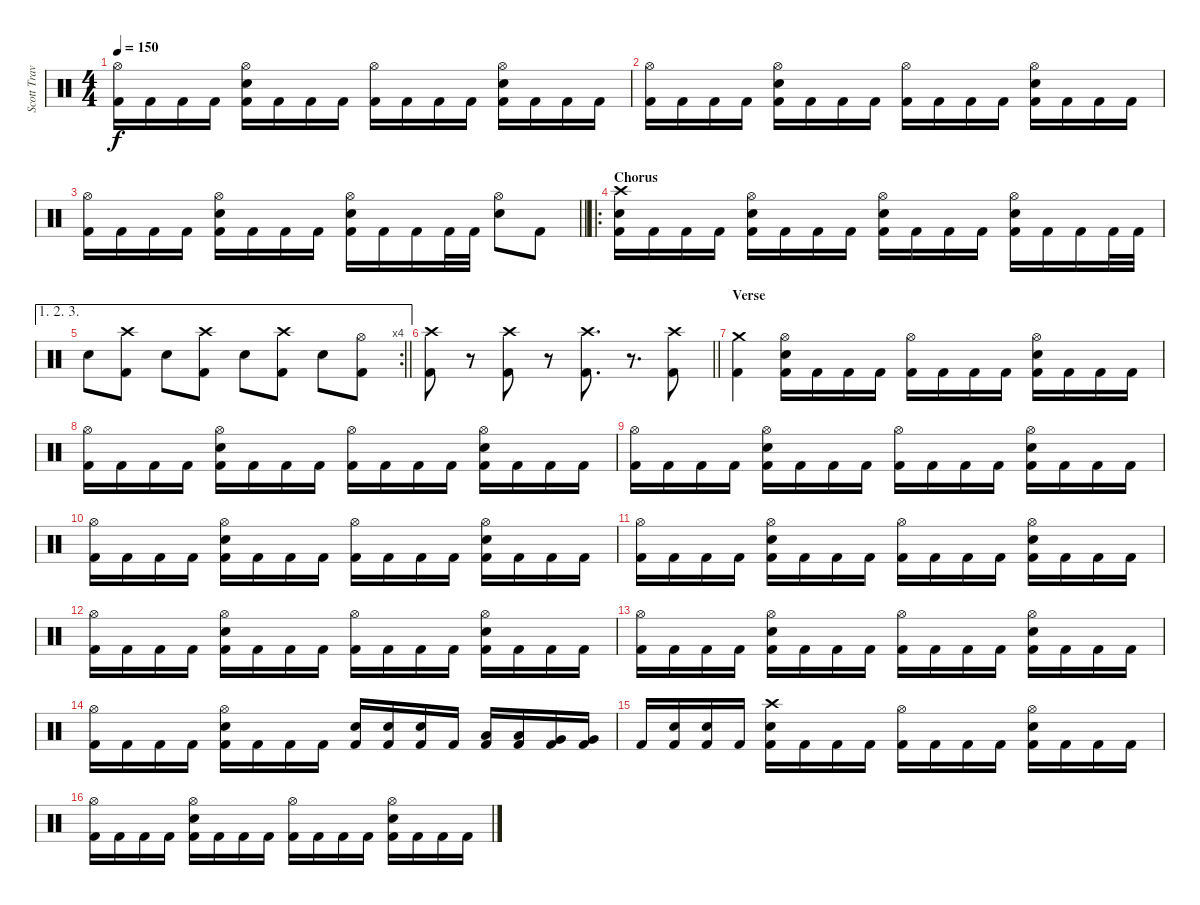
\track ("Scott Travis" "Scott Trav") {instrument percussion}
\staff {score}
\articulation defaults
\ts (4 4)
\tempo 150
\clef neutral
\ks c
("Hi-Hat (open)" "Kick (hit) 2").16{dy f} "Kick (hit) 2".16 "Kick (hit) 2".16 "Kick (hit) 2".16 ("Hi-Hat (open)" "Snare (hit) 2" "Kick (hit) 2").16 "Kick (hit) 2".16 "Kick (hit) 2".16 "Kick (hit) 2".16 ("Hi-Hat (open)" "Kick (hit) 2").16 "Kick (hit) 2".16 "Kick (hit) 2".16 "Kick (hit) 2".16 ("Hi-Hat (open)" "Snare (hit) 2" "Kick (hit) 2").16 "Kick (hit) 2".16 "Kick (hit) 2".16 "Kick (hit) 2".16 |
("Hi-Hat (open)" "Kick (hit) 2").16 "Kick (hit) 2".16 "Kick (hit) 2".16 "Kick (hit) 2".16 ("Hi-Hat (open)" "Snare (hit) 2" "Kick (hit) 2").16 "Kick (hit) 2".16 "Kick (hit) 2".16 "Kick (hit) 2".16 ("Hi-Hat (open)" "Kick (hit) 2").16 "Kick (hit) 2".16 "Kick (hit) 2".16 "Kick (hit) 2".16 ("Hi-Hat (open)" "Snare (hit) 2" "Kick (hit) 2").16 "Kick (hit) 2".16 "Kick (hit) 2".16 "Kick (hit) 2".16 |
\barLineRight lightlight
("Hi-Hat (open)" "Kick (hit) 2").16 "Kick (hit) 2".16 "Kick (hit) 2".16 "Kick (hit) 2".16 ("Hi-Hat (open)" "Snare (hit) 2" "Kick (hit) 2").16 "Kick (hit) 2".16 "Kick (hit) 2".16 "Kick (hit) 2".16 ("Hi-Hat (open)" "Snare (hit) 2" "Kick (hit) 2").16 "Kick (hit) 2".16 "Kick (hit) 2".16 "Kick (hit) 2".32 "Kick (hit) 2".32 ("Hi-Hat (open)" "Snare (hit) 2").8 "Kick (hit) 2".8 |
\ro
\section ("" "Chorus")
("Crash high (hit)" "Snare (hit) 2" "Kick (hit) 2").16 "Kick (hit) 2".16 "Kick (hit) 2".16 "Kick (hit) 2".16 ("Hi-Hat (open)" "Snare (hit) 2" "Kick (hit) 2").16 "Kick (hit) 2".16 "Kick (hit) 2".16 "Kick (hit) 2".16 ("Hi-Hat (open)" "Snare (hit) 2" "Kick (hit) 2").16 "Kick (hit) 2".16 "Kick (hit) 2".16 "Kick (hit) 2".16 ("Hi-Hat (open)" "Snare (hit) 2" "Kick (hit) 2").16 "Kick (hit) 2".16 "Kick (hit) 2".16 "Kick (hit) 2".32 "Kick (hit) 2".32 |
\ae (1 2 3)
\rc 4
\barLineRight lightlight "Snare (hit) 2".8
("Crash high (hit)" "Kick (hit) 2").8 "Snare (hit) 2".8 ("Crash high (hit)" "Kick (hit) 2").8 "Snare (hit) 2".8 ("Crash high (hit)" "Kick (hit) 2").8 "Snare (hit) 2".8 ("Hi-Hat (open)" "Kick (hit) 2").8 |
\barLineRight lightlight
("Crash high (hit)" "Kick (hit) 2").8 r.8{volume 0} ("Crash high (hit)" "Kick (hit) 2").8{volume 16} r.8{volume 0} ("Crash high (hit)" "Kick (hit) 2").8{d volume 16} r.8{d} ("Crash high (hit)" "Kick (hit) 2").8 |
\section ("" "Verse")
("Crash medium (hit)" "Kick (hit) 2").4 ("Hi-Hat (open)" "Snare (hit) 2" "Kick (hit) 2").16 "Kick (hit) 2".16 "Kick (hit) 2".16 "Kick (hit) 2".16 ("Hi-Hat (open)" "Kick (hit) 2").16 "Kick (hit) 2".16 "Kick (hit) 2".16 "Kick (hit) 2".16 ("Hi-Hat (open)" "Snare (hit) 2" "Kick (hit) 2").16 "Kick (hit) 2".16 "Kick (hit) 2".16 "Kick (hit) 2".16 |
("Hi-Hat (open)" "Kick (hit) 2").16 "Kick (hit) 2".16 "Kick (hit) 2".16 "Kick (hit) 2".16 ("Hi-Hat (open)" "Snare (hit) 2" "Kick (hit) 2").16 "Kick (hit) 2".16 "Kick (hit) 2".16 "Kick (hit) 2".16 ("Hi-Hat (open)" "Kick (hit) 2").16 "Kick (hit) 2".16 "Kick (hit) 2".16 "Kick (hit) 2".16 ("Hi-Hat (open)" "Snare (hit) 2" "Kick (hit) 2").16 "Kick (hit) 2".16 "Kick (hit) 2".16 "Kick (hit) 2".16 |
("Hi-Hat (open)" "Kick (hit) 2").16 "Kick (hit) 2".16 "Kick (hit) 2".16 "Kick (hit) 2".16 ("Hi-Hat (open)" "Snare (hit) 2" "Kick (hit) 2").16 "Kick (hit) 2".16 "Kick (hit) 2".16 "Kick (hit) 2".16 ("Hi-Hat (open)" "Kick (hit) 2").16 "Kick (hit) 2".16 "Kick (hit) 2".16 "Kick (hit) 2".16 ("Hi-Hat (open)" "Snare (hit) 2" "Kick (hit) 2").16 "Kick (hit) 2".16 "Kick (hit) 2".16 "Kick (hit) 2".16 |
("Hi-Hat (open)" "Kick (hit) 2").16 "Kick (hit) 2".16 "Kick (hit) 2".16 "Kick (hit) 2".16 ("Hi-Hat (open)" "Snare (hit) 2" "Kick (hit) 2").16 "Kick (hit) 2".16 "Kick (hit) 2".16 "Kick (hit) 2".16 ("Hi-Hat (open)" "Kick (hit) 2").16 "Kick (hit) 2".16 "Kick (hit) 2".16 "Kick (hit) 2".16 ("Hi-Hat (open)" "Snare (hit) 2" "Kick (hit) 2").16 "Kick (hit) 2".16 "Kick (hit) 2".16 "Kick (hit) 2".16 |
("Hi-Hat (open)" "Kick (hit) 2").16 "Kick (hit) 2".16 "Kick (hit) 2".16 "Kick (hit) 2".16 ("Hi-Hat (open)" "Snare (hit) 2" "Kick (hit) 2").16 "Kick (hit) 2".16 "Kick (hit) 2".16 "Kick (hit) 2".16 ("Hi-Hat (open)" "Kick (hit) 2").16 "Kick (hit) 2".16 "Kick (hit) 2".16 "Kick (hit) 2".16 ("Hi-Hat (open)" "Snare (hit) 2" "Kick (hit) 2").16 "Kick (hit) 2".16 "Kick (hit) 2".16 "Kick (hit) 2".16 |
("Hi-Hat (open)" "Kick (hit) 2").16 "Kick (hit) 2".16 "Kick (hit) 2".16 "Kick (hit) 2".16 ("Hi-Hat (open)" "Snare (hit) 2" "Kick (hit) 2").16 "Kick (hit) 2".16 "Kick (hit) 2".16 "Kick (hit) 2".16 ("Hi-Hat (open)" "Kick (hit) 2").16 "Kick (hit) 2".16 "Kick (hit) 2".16 "Kick (hit) 2".16 ("Hi-Hat (open)" "Snare (hit) 2" "Kick (hit) 2").16 "Kick (hit) 2".16 "Kick (hit) 2".16 "Kick (hit) 2".16 |
("Hi-Hat (open)" "Kick (hit) 2").16 "Kick (hit) 2".16 "Kick (hit) 2".16 "Kick (hit) 2".16 ("Hi-Hat (open)" "Snare (hit) 2" "Kick (hit) 2").16 "Kick (hit) 2".16 "Kick (hit) 2".16 "Kick (hit) 2".16 ("Hi-Hat (open)" "Kick (hit) 2").16 "Kick (hit) 2".16 "Kick (hit) 2".16 "Kick (hit) 2".16 ("Hi-Hat (open)" "Snare (hit) 2" "Kick (hit) 2").16 "Kick (hit) 2".16 "Kick (hit) 2".16 "Kick (hit) 2".16 |
("Hi-Hat (open)" "Kick (hit) 2").16 "Kick (hit) 2".16 "Kick (hit) 2".16 "Kick (hit) 2".16 ("Hi-Hat (open)" "Snare (hit) 2" "Kick (hit) 2").16 "Kick (hit) 2".16 "Kick (hit) 2".16 "Kick (hit) 2".16 ("Snare (hit) 2" "Kick (hit) 2").16 ("Snare (hit) 2" "Kick (hit) 2").16 ("Snare (hit) 2" "Kick (hit) 2").16 "Kick (hit) 2".16 ("Low Tom (hit)" "Kick (hit) 2").16 ("Low Tom (hit)" "Kick (hit) 2").16 ("Very Low Tom (hit)" "Kick (hit) 2").16 ("Very Low Tom (hit)" "Kick (hit) 2").16 |
"Kick (hit) 2".16 ("Snare (hit) 2" "Kick (hit) 2").16 ("Snare (hit) 2" "Kick (hit) 2").16 "Kick (hit) 2".16 ("Crash high (hit)" "Snare (hit) 2" "Kick (hit) 2").16 "Kick (hit) 2".16 "Kick (hit) 2".16 "Kick (hit) 2".16 ("Hi-Hat (open)" "Kick (hit) 2").16 "Kick (hit) 2".16 "Kick (hit) 2".16 "Kick (hit) 2".16 ("Hi-Hat (open)" "Snare (hit) 2" "Kick (hit) 2").16 "Kick (hit) 2".16 "Kick (hit) 2".16 "Kick (hit) 2".16 |
("Hi-Hat (open)" "Kick (hit) 2").16 "Kick (hit) 2".16 "Kick (hit) 2".16 "Kick (hit) 2".16 ("Hi-Hat (open)" "Snare (hit) 2" "Kick (hit) 2").16 "Kick (hit) 2".16 "Kick (hit) 2".16 "Kick (hit) 2".16 ("Hi-Hat (open)" "Kick (hit) 2").16 "Kick (hit) 2".16 "Kick (hit) 2".16 "Kick (hit) 2".16 ("Hi-Hat (open)" "Snare (hit) 2" "Kick (hit) 2").16 "Kick (hit) 2".16 "Kick (hit) 2".16 "Kick (hit) 2".16
